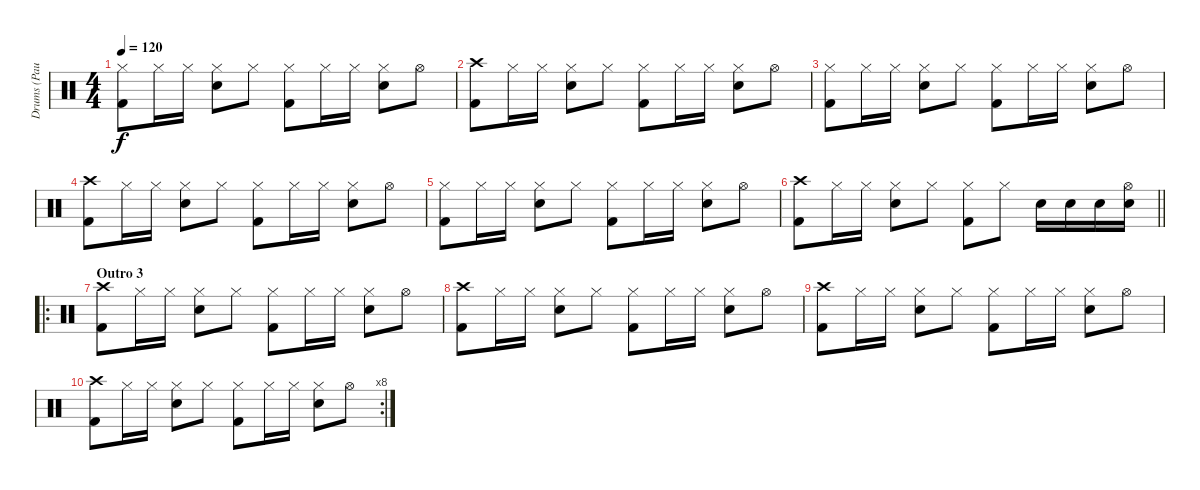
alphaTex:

\track ("Drums (Paul Thompson)" "Drums (Pau") {instrument percussion}
\staff {score}
\articulation defaults
\ts (4 4)
\tempo 120
\clef neutral
\ks c
("Hi-Hat (closed)" "Kick (hit) 2").8{dy f} "Hi-Hat (closed)".16 "Hi-Hat (closed)".16 ("Hi-Hat (closed)" "Snare (hit) 2").8 "Hi-Hat (closed)".8 ("Hi-Hat (closed)" "Kick (hit) 2").8 "Hi-Hat (closed)".16 "Hi-Hat (closed)".16 ("Hi-Hat (closed)" "Snare (hit) 2").8 "Hi-Hat (open)".8 |
("Crash high (hit)" "Kick (hit) 2").8 "Hi-Hat (closed)".16 "Hi-Hat (closed)".16 ("Hi-Hat (closed)" "Snare (hit) 2").8 "Hi-Hat (closed)".8 ("Hi-Hat (closed)" "Kick (hit) 2").8 "Hi-Hat (closed)".16 "Hi-Hat (closed)".16 ("Hi-Hat (closed)" "Snare (hit) 2").8 "Hi-Hat (open)".8 |
("Hi-Hat (closed)" "Kick (hit) 2").8 "Hi-Hat (closed)".16 "Hi-Hat (closed)".16 ("Hi-Hat (closed)" "Snare (hit) 2").8 "Hi-Hat (closed)".8 ("Hi-Hat (closed)" "Kick (hit) 2").8 "Hi-Hat (closed)".16 "Hi-Hat (closed)".16 ("Hi-Hat (closed)" "Snare (hit) 2").8 "Hi-Hat (open)".8 |
("Crash high (hit)" "Kick (hit) 2").8 "Hi-Hat (closed)".16 "Hi-Hat (closed)".16 ("Hi-Hat (closed)" "Snare (hit) 2").8 "Hi-Hat (closed)".8 ("Hi-Hat (closed)" "Kick (hit) 2").8 "Hi-Hat (closed)".16 "Hi-Hat (closed)".16 ("Hi-Hat (closed)" "Snare (hit) 2").8 "Hi-Hat (open)".8 |
("Hi-Hat (closed)" "Kick (hit) 2").8 "Hi-Hat (closed)".16 "Hi-Hat (closed)".16 ("Hi-Hat (closed)" "Snare (hit) 2").8 "Hi-Hat (closed)".8 ("Hi-Hat (closed)" "Kick (hit) 2").8 "Hi-Hat (closed)".16 "Hi-Hat (closed)".16 ("Hi-Hat (closed)" "Snare (hit) 2").8 "Hi-Hat (open)".8 |
\barLineRight lightlight
("Crash high (hit)" "Kick (hit) 2").8 "Hi-Hat (closed)".16 "Hi-Hat (closed)".16 ("Hi-Hat (closed)" "Snare (hit) 2").8 "Hi-Hat (closed)".8 ("Hi-Hat (closed)" "Kick (hit) 2").8 "Hi-Hat (closed)".8 "Snare (hit) 2".16 "Snare (hit) 2".16 "Snare (hit) 2".16 ("Hi-Hat (open)" "Snare (hit) 2").16 |
\ro
\section ("" "Outro 3")
("Crash high (hit)" "Kick (hit) 2").8 "Hi-Hat (closed)".16 "Hi-Hat (closed)".16 ("Hi-Hat (closed)" "Snare (hit) 2").8 "Hi-Hat (closed)".8 ("Hi-Hat (closed)" "Kick (hit) 2").8 "Hi-Hat (closed)".16 "Hi-Hat (closed)".16 ("Hi-Hat (closed)" "Snare (hit) 2").8 "Hi-Hat (open)".8 |
("Crash high (hit)" "Kick (hit) 2").8 "Hi-Hat (closed)".16 "Hi-Hat (closed)".16 ("Hi-Hat (closed)" "Snare (hit) 2").8 "Hi-Hat (closed)".8 ("Hi-Hat (closed)" "Kick (hit) 2").8 "Hi-Hat (closed)".16 "Hi-Hat (closed)".16 ("Hi-Hat (closed)" "Snare (hit) 2").8 "Hi-Hat (open)".8 |
("Crash high (hit)" "Kick (hit) 2").8 "Hi-Hat (closed)".16 "Hi-Hat (closed)".16 ("Hi-Hat (closed)" "Snare (hit) 2").8 "Hi-Hat (closed)".8 ("Hi-Hat (closed)" "Kick (hit) 2").8 "Hi-Hat (closed)".16 "Hi-Hat (closed)".16 ("Hi-Hat (closed)" "Snare (hit) 2").8 "Hi-Hat (open)".8 |
\rc 8
("Crash high (hit)" "Kick (hit) 2").8 "Hi-Hat (closed)".16 "Hi-Hat (closed)".16 ("Hi-Hat (closed)" "Snare (hit) 2").8 "Hi-Hat (closed)".8 ("Hi-Hat (closed)" "Kick (hit) 2").8 "Hi-Hat (closed)".16 "Hi-Hat (closed)".16 ("Hi-Hat (closed)" "Snare (hit) 2").8 "Hi-Hat (open)".8
